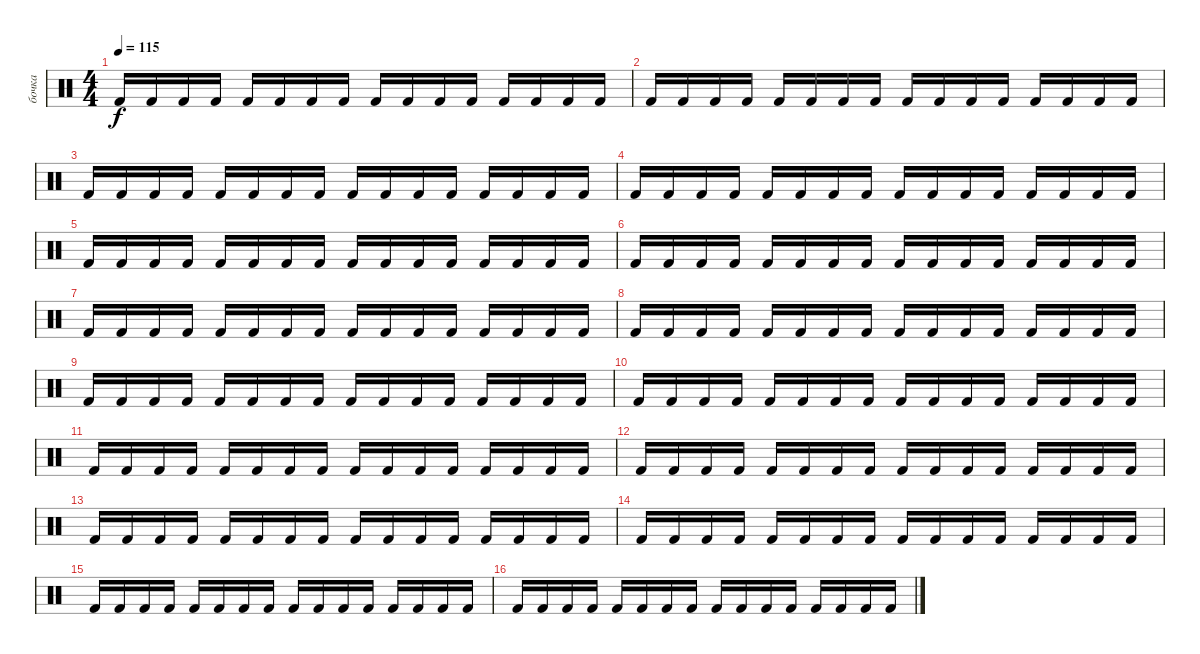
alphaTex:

\track ("бочка" "бочка") {mute instrument percussion}
\staff {score}
\articulation defaults
\ts (4 4)
\tempo 115
\clef neutral
\ks c "Kick (hit) 2".16{dy f} "Kick (hit) 2".16 "Kick (hit) 2".16 "Kick (hit) 2".16 "Kick (hit) 2".16 "Kick (hit) 2".16 "Kick (hit) 2".16 "Kick (hit) 2".16 "Kick (hit) 2".16 "Kick (hit) 2".16 "Kick (hit) 2".16 "Kick (hit) 2".16 "Kick (hit) 2".16 "Kick (hit) 2".16 "Kick (hit) 2".16 "Kick (hit) 2".16
|
"Kick (hit) 2".16 "Kick (hit) 2".16 "Kick (hit) 2".16 "Kick (hit) 2".16 "Kick (hit) 2".16 "Kick (hit) 2".16 "Kick (hit) 2".16 "Kick (hit) 2".16 "Kick (hit) 2".16 "Kick (hit) 2".16 "Kick (hit) 2".16 "Kick (hit) 2".16 "Kick (hit) 2".16 "Kick (hit) 2".16 "Kick (hit) 2".16 "Kick (hit) 2".16 |
"Kick (hit) 2".16 "Kick (hit) 2".16 "Kick (hit) 2".16 "Kick (hit) 2".16 "Kick (hit) 2".16 "Kick (hit) 2".16 "Kick (hit) 2".16 "Kick (hit) 2".16 "Kick (hit) 2".16 "Kick (hit) 2".16 "Kick (hit) 2".16 "Kick (hit) 2".16 "Kick (hit) 2".16 "Kick (hit) 2".16 "Kick (hit) 2".16 "Kick (hit) 2".16 |
"Kick (hit) 2".16 "Kick (hit) 2".16 "Kick (hit) 2".16 "Kick (hit) 2".16 "Kick (hit) 2".16 "Kick (hit) 2".16 "Kick (hit) 2".16 "Kick (hit) 2".16 "Kick (hit) 2".16 "Kick (hit) 2".16 "Kick (hit) 2".16 "Kick (hit) 2".16 "Kick (hit) 2".16 "Kick (hit) 2".16 "Kick (hit) 2".16 "Kick (hit) 2".16 |
"Kick (hit) 2".16 "Kick (hit) 2".16 "Kick (hit) 2".16 "Kick (hit) 2".16 "Kick (hit) 2".16 "Kick (hit) 2".16 "Kick (hit) 2".16 "Kick (hit) 2".16 "Kick (hit) 2".16 "Kick (hit) 2".16 "Kick (hit) 2".16 "Kick (hit) 2".16 "Kick (hit) 2".16 "Kick (hit) 2".16 "Kick (hit) 2".16 "Kick (hit) 2".16 |
"Kick (hit) 2".16 "Kick (hit) 2".16 "Kick (hit) 2".16 "Kick (hit) 2".16 "Kick (hit) 2".16 "Kick (hit) 2".16 "Kick (hit) 2".16 "Kick (hit) 2".16 "Kick (hit) 2".16 "Kick (hit) 2".16 "Kick (hit) 2".16 "Kick (hit) 2".16 "Kick (hit) 2".16 "Kick (hit) 2".16 "Kick (hit) 2".16 "Kick (hit) 2".16 |
"Kick (hit) 2".16 "Kick (hit) 2".16 "Kick (hit) 2".16 "Kick (hit) 2".16 "Kick (hit) 2".16 "Kick (hit) 2".16 "Kick (hit) 2".16 "Kick (hit) 2".16 "Kick (hit) 2".16 "Kick (hit) 2".16 "Kick (hit) 2".16 "Kick (hit) 2".16 "Kick (hit) 2".16 "Kick (hit) 2".16 "Kick (hit) 2".16 "Kick (hit) 2".16 |
"Kick (hit) 2".16 "Kick (hit) 2".16 "Kick (hit) 2".16 "Kick (hit) 2".16 "Kick (hit) 2".16 "Kick (hit) 2".16 "Kick (hit) 2".16 "Kick (hit) 2".16 "Kick (hit) 2".16 "Kick (hit) 2".16 "Kick (hit) 2".16 "Kick (hit) 2".16 "Kick (hit) 2".16 "Kick (hit) 2".16 "Kick (hit) 2".16 "Kick (hit) 2".16 |
"Kick (hit) 2".16 "Kick (hit) 2".16 "Kick (hit) 2".16 "Kick (hit) 2".16 "Kick (hit) 2".16 "Kick (hit) 2".16 "Kick (hit) 2".16 "Kick (hit) 2".16 "Kick (hit) 2".16 "Kick (hit) 2".16 "Kick (hit) 2".16 "Kick (hit) 2".16 "Kick (hit) 2".16 "Kick (hit) 2".16 "Kick (hit) 2".16 "Kick (hit) 2".16 |
"Kick (hit) 2".16 "Kick (hit) 2".16 "Kick (hit) 2".16 "Kick (hit) 2".16 "Kick (hit) 2".16 "Kick (hit) 2".16 "Kick (hit) 2".16 "Kick (hit) 2".16 "Kick (hit) 2".16 "Kick (hit) 2".16 "Kick (hit) 2".16 "Kick (hit) 2".16 "Kick (hit) 2".16 "Kick (hit) 2".16 "Kick (hit) 2".16 "Kick (hit) 2".16 |
"Kick (hit) 2".16 "Kick (hit) 2".16 "Kick (hit) 2".16 "Kick (hit) 2".16 "Kick (hit) 2".16 "Kick (hit) 2".16 "Kick (hit) 2".16 "Kick (hit) 2".16 "Kick (hit) 2".16 "Kick (hit) 2".16 "Kick (hit) 2".16 "Kick (hit) 2".16 "Kick (hit) 2".16 "Kick (hit) 2".16 "Kick (hit) 2".16 "Kick (hit) 2".16 |
"Kick (hit) 2".16 "Kick (hit) 2".16 "Kick (hit) 2".16 "Kick (hit) 2".16 "Kick (hit) 2".16 "Kick (hit) 2".16 "Kick (hit) 2".16 "Kick (hit) 2".16 "Kick (hit) 2".16 "Kick (hit) 2".16 "Kick (hit) 2".16 "Kick (hit) 2".16 "Kick (hit) 2".16 "Kick (hit) 2".16 "Kick (hit) 2".16 "Kick (hit) 2".16 |
"Kick (hit) 2".16 "Kick (hit) 2".16 "Kick (hit) 2".16 "Kick (hit) 2".16 "Kick (hit) 2".16 "Kick (hit) 2".16 "Kick (hit) 2".16 "Kick (hit) 2".16 "Kick (hit) 2".16 "Kick (hit) 2".16 "Kick (hit) 2".16 "Kick (hit) 2".16 "Kick (hit) 2".16 "Kick (hit) 2".16 "Kick (hit) 2".16 "Kick (hit) 2".16 |
"Kick (hit) 2".16 "Kick (hit) 2".16 "Kick (hit) 2".16 "Kick (hit) 2".16 "Kick (hit) 2".16 "Kick (hit) 2".16 "Kick (hit) 2".16 "Kick (hit) 2".16 "Kick (hit) 2".16 "Kick (hit) 2".16 "Kick (hit) 2".16 "Kick (hit) 2".16 "Kick (hit) 2".16 "Kick (hit) 2".16 "Kick (hit) 2".16 "Kick (hit) 2".16 |
"Kick (hit) 2".16 "Kick (hit) 2".16 "Kick (hit) 2".16 "Kick (hit) 2".16 "Kick (hit) 2".16 "Kick (hit) 2".16 "Kick (hit) 2".16 "Kick (hit) 2".16 "Kick (hit) 2".16 "Kick (hit) 2".16 "Kick (hit) 2".16 "Kick (hit) 2".16 "Kick (hit) 2".16 "Kick (hit) 2".16 "Kick (hit) 2".16 "Kick (hit) 2".16 |
"Kick (hit) 2".16 "Kick (hit) 2".16 "Kick (hit) 2".16 "Kick (hit) 2".16 "Kick (hit) 2".16 "Kick (hit) 2".16 "Kick (hit) 2".16 "Kick (hit) 2".16 "Kick (hit) 2".16 "Kick (hit) 2".16 "Kick (hit) 2".16 "Kick (hit) 2".16 "Kick (hit) 2".16 "Kick (hit) 2".16 "Kick (hit) 2".16 "Kick (hit) 2".16
